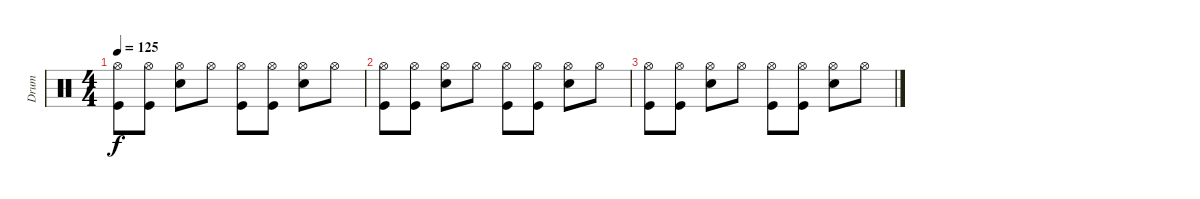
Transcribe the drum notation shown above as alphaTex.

\track ("Drum" "Drum") {instrument percussion}
\staff {score}
\articulation defaults
\ts (4 4)
\tempo 125
\clef neutral
\ks c
("Hi-Hat (open)" "Kick (hit)").8{dy f} ("Hi-Hat (open)" "Kick (hit)").8 ("Hi-Hat (open)" "Snare (hit) 2").8 "Hi-Hat (open)".8 ("Hi-Hat (open)" "Kick (hit)").8 ("Hi-Hat (open)" "Kick (hit)").8 ("Hi-Hat (open)" "Snare (hit) 2").8 "Hi-Hat (open)".8 |
("Hi-Hat (open)" "Kick (hit)").8 ("Hi-Hat (open)" "Kick (hit)").8 ("Hi-Hat (open)" "Snare (hit) 2").8 "Hi-Hat (open)".8 ("Hi-Hat (open)" "Kick (hit)").8 ("Hi-Hat (open)" "Kick (hit)").8 ("Hi-Hat (open)" "Snare (hit) 2").8 "Hi-Hat (open)".8 |
("Hi-Hat (open)" "Kick (hit)").8 ("Hi-Hat (open)" "Kick (hit)").8 ("Hi-Hat (open)" "Snare (hit) 2").8 "Hi-Hat (open)".8 ("Hi-Hat (open)" "Kick (hit)").8 ("Hi-Hat (open)" "Kick (hit)").8 ("Hi-Hat (open)" "Snare (hit) 2").8 "Hi-Hat (open)".8
